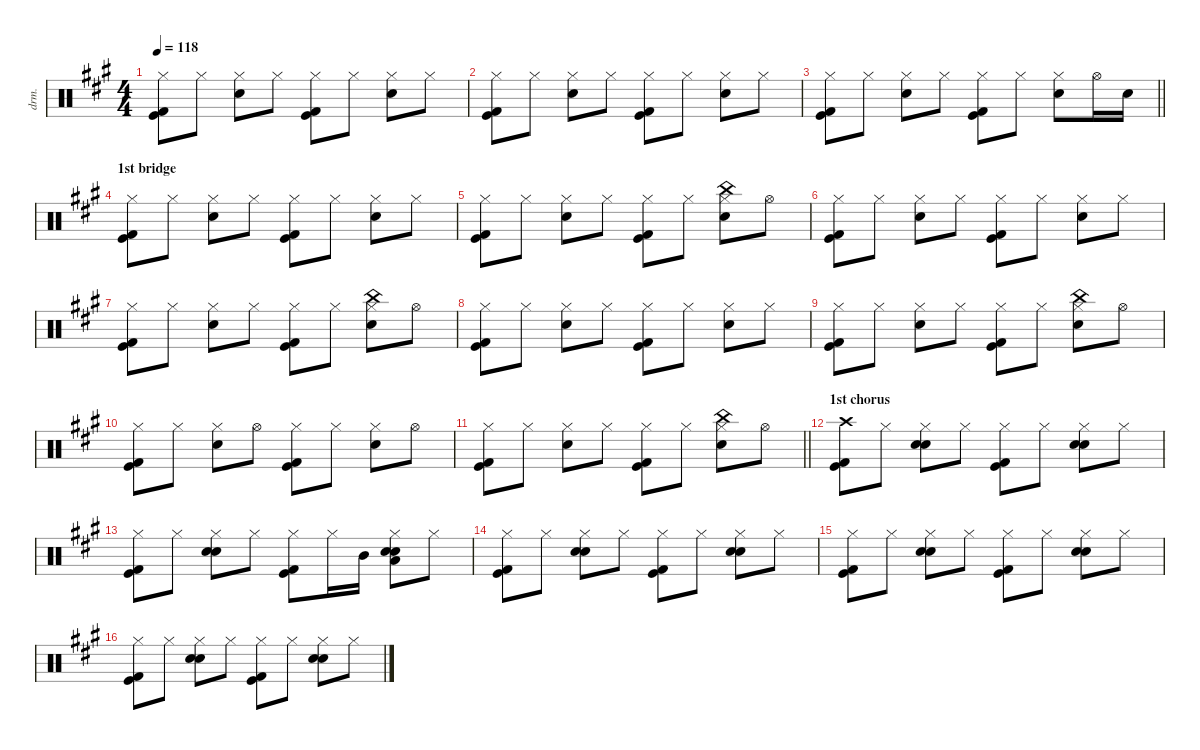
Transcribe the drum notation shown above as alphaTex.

\defaultSystemsLayout 4
\hideDynamics
\bracketExtendMode nobrackets
\otherSystemsTrackNameOrientation horizontal
\track ("drums" "drm.") {instrument percussion}
\staff {score}
\articulation defaults
\ts (4 4)
\tempo 118
\clef neutral
\ks f#minor
("Hi-Hat (closed)"{acc forcenatural} "Kick (hit)"{acc forcenatural} "Kick (hit) 2"{acc forcenatural}).8{dy f} "Hi-Hat (closed)"{acc forcenatural}.8{dy mf} ("Hi-Hat (closed)"{acc forcenatural} "Snare (hit) 2"{acc forcenatural}).8{dy f} "Hi-Hat (closed)"{acc forcenatural}.8{dy mf} ("Hi-Hat (closed)"{acc forcenatural} "Kick (hit)"{acc forcenatural} "Kick (hit) 2"{acc forcenatural}).8{dy f} "Hi-Hat (closed)"{acc forcenatural}.8{dy mf} ("Hi-Hat (closed)"{acc forcenatural} "Snare (hit) 2"{acc forcenatural}).8{dy f} "Hi-Hat (closed)"{acc forcenatural}.8{dy mf} |
("Hi-Hat (closed)"{acc forcenatural} "Kick (hit)"{acc forcenatural} "Kick (hit) 2"{acc forcenatural}).8{dy f} "Hi-Hat (closed)"{acc forcenatural}.8{dy mf} ("Hi-Hat (closed)"{acc forcenatural} "Snare (hit) 2"{acc forcenatural}).8{dy f} "Hi-Hat (closed)"{acc forcenatural}.8{dy mf} ("Hi-Hat (closed)"{acc forcenatural} "Kick (hit)"{acc forcenatural} "Kick (hit) 2"{acc forcenatural}).8{dy f} "Hi-Hat (closed)"{acc forcenatural}.8{dy mf} ("Hi-Hat (closed)"{acc forcenatural} "Snare (hit) 2"{acc forcenatural}).8{dy f} "Hi-Hat (closed)"{acc forcenatural}.8{dy mf} |
\barLineRight lightlight
("Hi-Hat (closed)"{acc forcenatural} "Kick (hit)"{acc forcenatural} "Kick (hit) 2"{acc forcenatural}).8{dy f} "Hi-Hat (closed)"{acc forcenatural}.8{dy mf} ("Hi-Hat (closed)"{acc forcenatural} "Snare (hit) 2"{acc forcenatural}).8{dy f} "Hi-Hat (closed)"{acc forcenatural}.8{dy mf} ("Hi-Hat (closed)"{acc forcenatural} "Kick (hit)"{acc forcenatural} "Kick (hit) 2"{acc forcenatural}).8{dy f} "Hi-Hat (closed)"{acc forcenatural}.8{dy mf} ("Hi-Hat (closed)"{acc forcenatural} "Snare (hit) 2"{acc forcenatural}).8{dy f} "Hi-Hat (open)"{acc forcenatural}.16{dy mf} "Snare (hit) 2"{acc forcenatural}.16 |
\section ("" "1st bridge")
("Hi-Hat (closed)"{acc forcenatural} "Kick (hit)"{acc forcenatural} "Kick (hit) 2"{acc forcenatural}).8{dy f} "Hi-Hat (closed)"{acc forcenatural}.8{dy mf} ("Hi-Hat (closed)"{acc forcenatural} "Snare (hit) 2"{acc forcenatural}).8{dy f} "Hi-Hat (closed)"{acc forcenatural}.8{dy mf} ("Hi-Hat (closed)"{acc forcenatural} "Kick (hit)"{acc forcenatural} "Kick (hit) 2"{acc forcenatural}).8{dy f} "Hi-Hat (closed)"{acc forcenatural}.8{dy mf} ("Hi-Hat (closed)"{acc forcenatural} "Snare (hit) 2"{acc forcenatural}).8{dy f} "Hi-Hat (closed)"{acc forcenatural}.8{dy mf} |
("Hi-Hat (closed)"{acc forcenatural} "Kick (hit)"{acc forcenatural} "Kick (hit) 2"{acc forcenatural}).8{dy f} "Hi-Hat (closed)"{acc forcenatural}.8{dy mf} ("Hi-Hat (closed)"{acc forcenatural} "Snare (hit) 2"{acc forcenatural}).8{dy f} "Hi-Hat (closed)"{acc forcenatural}.8{dy mf} ("Hi-Hat (closed)"{acc forcenatural} "Kick (hit)"{acc forcenatural} "Kick (hit) 2"{acc forcenatural}).8{dy f} "Hi-Hat (closed)"{acc forcenatural}.8{dy mf} ("Hi-Hat (closed)"{acc forcenatural} "China (hit)"{acc forcenatural} "Snare (hit) 2"{acc forcenatural}).8{dy f} "Hi-Hat (open)"{acc forcenatural}.8{dy mf} |
("Hi-Hat (closed)"{acc forcenatural} "Kick (hit)"{acc forcenatural} "Kick (hit) 2"{acc forcenatural}).8{dy f} "Hi-Hat (closed)"{acc forcenatural}.8{dy mf} ("Hi-Hat (closed)"{acc forcenatural} "Snare (hit) 2"{acc forcenatural}).8{dy f} "Hi-Hat (closed)"{acc forcenatural}.8{dy mf} ("Hi-Hat (closed)"{acc forcenatural} "Kick (hit)"{acc forcenatural} "Kick (hit) 2"{acc forcenatural}).8{dy f} "Hi-Hat (closed)"{acc forcenatural}.8{dy mf} ("Hi-Hat (closed)"{acc forcenatural} "Snare (hit) 2"{acc forcenatural}).8{dy f} "Hi-Hat (closed)"{acc forcenatural}.8{dy mf} |
("Hi-Hat (closed)"{acc forcenatural} "Kick (hit)"{acc forcenatural} "Kick (hit) 2"{acc forcenatural}).8{dy f} "Hi-Hat (closed)"{acc forcenatural}.8{dy mf} ("Hi-Hat (closed)"{acc forcenatural} "Snare (hit) 2"{acc forcenatural}).8{dy f} "Hi-Hat (closed)"{acc forcenatural}.8{dy mf} ("Hi-Hat (closed)"{acc forcenatural} "Kick (hit)"{acc forcenatural} "Kick (hit) 2"{acc forcenatural}).8{dy f} "Hi-Hat (closed)"{acc forcenatural}.8{dy mf} ("Hi-Hat (closed)"{acc forcenatural} "China (hit)"{acc forcenatural} "Snare (hit) 2"{acc forcenatural}).8{dy f} "Hi-Hat (open)"{acc forcenatural}.8{dy mf} |
("Hi-Hat (closed)"{acc forcenatural} "Kick (hit)"{acc forcenatural} "Kick (hit) 2"{acc forcenatural}).8{dy f} "Hi-Hat (closed)"{acc forcenatural}.8{dy mf} ("Hi-Hat (closed)"{acc forcenatural} "Snare (hit) 2"{acc forcenatural}).8{dy f} "Hi-Hat (closed)"{acc forcenatural}.8{dy mf} ("Hi-Hat (closed)"{acc forcenatural} "Kick (hit)"{acc forcenatural} "Kick (hit) 2"{acc forcenatural}).8{dy f} "Hi-Hat (closed)"{acc forcenatural}.8{dy mf} ("Hi-Hat (closed)"{acc forcenatural} "Snare (hit) 2"{acc forcenatural}).8{dy f} "Hi-Hat (closed)"{acc forcenatural}.8{dy mf} |
("Hi-Hat (closed)"{acc forcenatural} "Kick (hit)"{acc forcenatural} "Kick (hit) 2"{acc forcenatural}).8{dy ff} "Hi-Hat (closed)"{acc forcenatural}.8{dy f} ("Hi-Hat (closed)"{acc forcenatural} "Snare (hit) 2"{acc forcenatural}).8{dy fff} "Hi-Hat (closed)"{acc forcenatural}.8{dy ff} ("Hi-Hat (closed)"{acc forcenatural} "Kick (hit)"{acc forcenatural} "Kick (hit) 2"{acc forcenatural}).8 "Hi-Hat (closed)"{acc forcenatural}.8{dy f} ("Hi-Hat (closed)"{acc forcenatural} "China (hit)"{acc forcenatural} "Snare (hit) 2"{acc forcenatural}).8{dy ff} "Hi-Hat (open)"{acc forcenatural}.8{dy mf} |
("Hi-Hat (closed)"{acc forcenatural} "Kick (hit)"{acc forcenatural} "Kick (hit) 2"{acc forcenatural}).8{dy f} "Hi-Hat (closed)"{acc forcenatural}.8{dy mf} ("Hi-Hat (closed)"{acc forcenatural} "Snare (hit) 2"{acc forcenatural}).8{dy f} "Hi-Hat (open)"{acc forcenatural}.8{dy mf} ("Hi-Hat (closed)"{acc forcenatural} "Kick (hit)"{acc forcenatural} "Kick (hit) 2"{acc forcenatural}).8{dy f} "Hi-Hat (closed)"{acc forcenatural}.8{dy mf} ("Hi-Hat (closed)"{acc forcenatural} "Snare (hit) 2"{acc forcenatural}).8{dy f} "Hi-Hat (open)"{acc forcenatural}.8{dy mf} |
\barLineRight lightlight
("Hi-Hat (closed)"{acc forcenatural} "Kick (hit)"{acc forcenatural} "Kick (hit) 2"{acc forcenatural}).8{dy f} "Hi-Hat (closed)"{acc forcenatural}.8{dy mf} ("Hi-Hat (closed)"{acc forcenatural} "Snare (hit) 2"{acc forcenatural}).8{dy f} "Hi-Hat (closed)"{acc forcenatural}.8{dy mf} ("Hi-Hat (closed)"{acc forcenatural} "Kick (hit)"{acc forcenatural} "Kick (hit) 2"{acc forcenatural}).8{dy f} "Hi-Hat (closed)"{acc forcenatural}.8{dy mf} ("Hi-Hat (closed)"{acc forcenatural} "China (hit)"{acc forcenatural} "Snare (hit) 2"{acc forcenatural}).8{dy f} "Hi-Hat (open)"{acc forcenatural}.8 |
\section ("" "1st chorus")
("Crash high (hit)"{acc forcenatural} "Kick (hit)"{acc forcenatural} "Kick (hit) 2"{acc forcenatural}).8 "Hi-Hat (closed)"{acc forcenatural}.8{dy mf} ("Hi-Hat (closed)"{acc forcenatural} "Hand Clap (hit)"{acc forcenatural} "Snare (hit) 2"{acc forcenatural}).8{dy f} "Hi-Hat (closed)"{acc forcenatural}.8{dy mf} ("Hi-Hat (closed)"{acc forcenatural} "Kick (hit)"{acc forcenatural} "Kick (hit) 2"{acc forcenatural}).8{dy f} "Hi-Hat (closed)"{acc forcenatural}.8{dy mf} ("Hi-Hat (closed)"{acc forcenatural} "Hand Clap (hit)"{acc forcenatural} "Snare (hit) 2"{acc forcenatural}).8{dy f} "Hi-Hat (closed)"{acc forcenatural}.8{dy mf} |
("Hi-Hat (closed)"{acc forcenatural} "Kick (hit)"{acc forcenatural} "Kick (hit) 2"{acc forcenatural}).8{dy f} "Hi-Hat (closed)"{acc forcenatural}.8{dy mf} ("Hi-Hat (closed)"{acc forcenatural} "Hand Clap (hit)"{acc forcenatural} "Snare (hit) 2"{acc forcenatural}).8{dy f} "Hi-Hat (closed)"{acc forcenatural}.8{dy mf} ("Hi-Hat (closed)"{acc forcenatural} "Kick (hit)"{acc forcenatural} "Kick (hit) 2"{acc forcenatural}).8{dy f} "Hi-Hat (closed)"{acc forcenatural}.16{dy mf} "Mid Tom (hit)"{acc forcenatural}.16 ("Hi-Hat (closed)"{acc forcenatural} "Hand Clap (hit)"{acc forcenatural} "Snare (hit) 2"{acc forcenatural} "Low Tom (hit)"{acc forcenatural}).8{dy f} "Hi-Hat (closed)"{acc forcenatural}.8{dy mf} |
("Hi-Hat (closed)"{acc forcenatural} "Kick (hit)"{acc forcenatural} "Kick (hit) 2"{acc forcenatural}).8{dy f} "Hi-Hat (closed)"{acc forcenatural}.8{dy mf} ("Hi-Hat (closed)"{acc forcenatural} "Hand Clap (hit)"{acc forcenatural} "Snare (hit) 2"{acc forcenatural}).8{dy f} "Hi-Hat (closed)"{acc forcenatural}.8{dy mf} ("Hi-Hat (closed)"{acc forcenatural} "Kick (hit)"{acc forcenatural} "Kick (hit) 2"{acc forcenatural}).8{dy f} "Hi-Hat (closed)"{acc forcenatural}.8{dy mf} ("Hi-Hat (closed)"{acc forcenatural} "Hand Clap (hit)"{acc forcenatural} "Snare (hit) 2"{acc forcenatural}).8{dy f} "Hi-Hat (closed)"{acc forcenatural}.8{dy mf} |
("Hi-Hat (closed)"{acc forcenatural} "Kick (hit)"{acc forcenatural} "Kick (hit) 2"{acc forcenatural}).8{dy f} "Hi-Hat (closed)"{acc forcenatural}.8{dy mf} ("Hi-Hat (closed)"{acc forcenatural} "Hand Clap (hit)"{acc forcenatural} "Snare (hit) 2"{acc forcenatural}).8{dy f} "Hi-Hat (closed)"{acc forcenatural}.8{dy mf} ("Hi-Hat (closed)"{acc forcenatural} "Kick (hit)"{acc forcenatural} "Kick (hit) 2"{acc forcenatural}).8{dy f} "Hi-Hat (closed)"{acc forcenatural}.8{dy mf} ("Hi-Hat (closed)"{acc forcenatural} "Hand Clap (hit)"{acc forcenatural} "Snare (hit) 2"{acc forcenatural}).8{dy f} "Hi-Hat (closed)"{acc forcenatural}.8{dy mf} |
("Hi-Hat (closed)"{acc forcenatural} "Kick (hit)"{acc forcenatural} "Kick (hit) 2"{acc forcenatural}).8{dy f} "Hi-Hat (closed)"{acc forcenatural}.8{dy mf} ("Hi-Hat (closed)"{acc forcenatural} "Hand Clap (hit)"{acc forcenatural} "Snare (hit) 2"{acc forcenatural}).8{dy f} "Hi-Hat (closed)"{acc forcenatural}.8{dy mf} ("Hi-Hat (closed)"{acc forcenatural} "Kick (hit)"{acc forcenatural} "Kick (hit) 2"{acc forcenatural}).8{dy f} "Hi-Hat (closed)"{acc forcenatural}.8{dy mf} ("Hi-Hat (closed)"{acc forcenatural} "Hand Clap (hit)"{acc forcenatural} "Snare (hit) 2"{acc forcenatural}).8{dy f} "Hi-Hat (closed)"{acc forcenatural}.8{dy mf}
